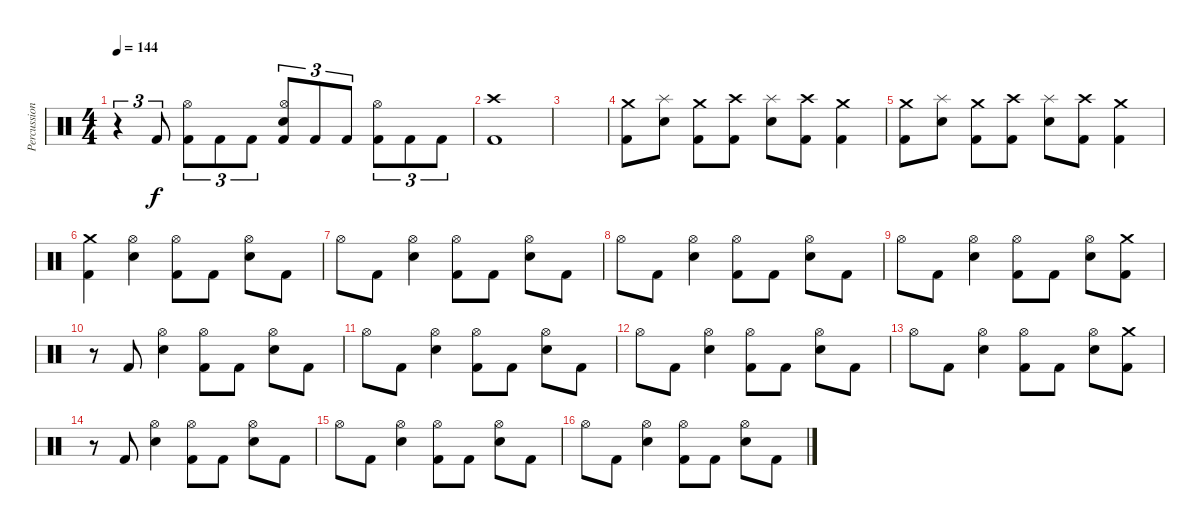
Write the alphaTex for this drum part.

\track ("Percussions" "Percussion") {instrument percussion}
\staff {score}
\articulation defaults
\ts (4 4)
\tempo 144
\clef neutral
\ks c
r.4{tu (3 2) dy f} "Kick (hit) 2".8{tu (3 2)} ("Hi-Hat (open)" "Kick (hit) 2").8{tu (3 2)} "Kick (hit) 2".8{tu (3 2)} "Kick (hit) 2".8{tu (3 2)} ("Hi-Hat (open)" "Electric Snare (hit)" "Kick (hit) 2").8{tu (3 2)} "Kick (hit) 2".8{tu (3 2)} "Kick (hit) 2".8{tu (3 2)} ("Hi-Hat (open)" "Kick (hit) 2").8{tu (3 2)} "Kick (hit) 2".8{tu (3 2)} "Kick (hit) 2".8{tu (3 2)} |
("Crash high (hit)" "Kick (hit) 2").1 |
|
("Crash medium (hit)" "Kick (hit) 2").8 ("Splash (hit)" "Electric Snare (hit)").8 ("Crash medium (hit)" "Kick (hit) 2").8 ("Crash high (hit)" "Kick (hit) 2").8 ("Splash (hit)" "Electric Snare (hit)").8 ("Crash high (hit)" "Kick (hit) 2").8 ("Crash medium (hit)" "Kick (hit) 2").4 |
("Crash medium (hit)" "Kick (hit) 2").8 ("Splash (hit)" "Electric Snare (hit)").8 ("Crash medium (hit)" "Kick (hit) 2").8 ("Crash high (hit)" "Kick (hit) 2").8 ("Splash (hit)" "Electric Snare (hit)").8 ("Crash high (hit)" "Kick (hit) 2").8 ("Crash medium (hit)" "Kick (hit) 2").4 |
("Crash medium (hit)" "Kick (hit) 2").4 ("Hi-Hat (open)" "Electric Snare (hit)").4 ("Hi-Hat (open)" "Kick (hit) 2").8 "Kick (hit) 2".8 ("Hi-Hat (open)" "Electric Snare (hit)").8 "Kick (hit) 2".8 |
"Hi-Hat (open)".8 "Kick (hit) 2".8 ("Hi-Hat (open)" "Electric Snare (hit)").4 ("Hi-Hat (open)" "Kick (hit) 2").8 "Kick (hit) 2".8 ("Hi-Hat (open)" "Electric Snare (hit)").8 "Kick (hit) 2".8 |
"Hi-Hat (open)".8 "Kick (hit) 2".8 ("Hi-Hat (open)" "Electric Snare (hit)").4 ("Hi-Hat (open)" "Kick (hit) 2").8 "Kick (hit) 2".8 ("Hi-Hat (open)" "Electric Snare (hit)").8 "Kick (hit) 2".8 |
"Hi-Hat (open)".8 "Kick (hit) 2".8 ("Hi-Hat (open)" "Electric Snare (hit)").4 ("Hi-Hat (open)" "Kick (hit) 2").8 "Kick (hit) 2".8 ("Hi-Hat (open)" "Electric Snare (hit)").8 ("Crash medium (hit)" "Kick (hit) 2").8 |
r.8 "Kick (hit) 2".8 ("Hi-Hat (open)" "Electric Snare (hit)").4 ("Hi-Hat (open)" "Kick (hit) 2").8 "Kick (hit) 2".8 ("Hi-Hat (open)" "Electric Snare (hit)").8 "Kick (hit) 2".8 |
"Hi-Hat (open)".8 "Kick (hit) 2".8 ("Hi-Hat (open)" "Electric Snare (hit)").4 ("Hi-Hat (open)" "Kick (hit) 2").8 "Kick (hit) 2".8 ("Hi-Hat (open)" "Electric Snare (hit)").8 "Kick (hit) 2".8 |
"Hi-Hat (open)".8 "Kick (hit) 2".8 ("Hi-Hat (open)" "Electric Snare (hit)").4 ("Hi-Hat (open)" "Kick (hit) 2").8 "Kick (hit) 2".8 ("Hi-Hat (open)" "Electric Snare (hit)").8 "Kick (hit) 2".8 |
"Hi-Hat (open)".8 "Kick (hit) 2".8 ("Hi-Hat (open)" "Electric Snare (hit)").4 ("Hi-Hat (open)" "Kick (hit) 2").8 "Kick (hit) 2".8 ("Hi-Hat (open)" "Electric Snare (hit)").8 ("Crash medium (hit)" "Kick (hit) 2").8 |
r.8 "Kick (hit) 2".8 ("Hi-Hat (open)" "Electric Snare (hit)").4 ("Hi-Hat (open)" "Kick (hit) 2").8 "Kick (hit) 2".8 ("Hi-Hat (open)" "Electric Snare (hit)").8 "Kick (hit) 2".8 |
"Hi-Hat (open)".8 "Kick (hit) 2".8 ("Hi-Hat (open)" "Electric Snare (hit)").4 ("Hi-Hat (open)" "Kick (hit) 2").8 "Kick (hit) 2".8 ("Hi-Hat (open)" "Electric Snare (hit)").8 "Kick (hit) 2".8 |
"Hi-Hat (open)".8 "Kick (hit) 2".8 ("Hi-Hat (open)" "Electric Snare (hit)").4 ("Hi-Hat (open)" "Kick (hit) 2").8 "Kick (hit) 2".8 ("Hi-Hat (open)" "Electric Snare (hit)").8 "Kick (hit) 2".8
